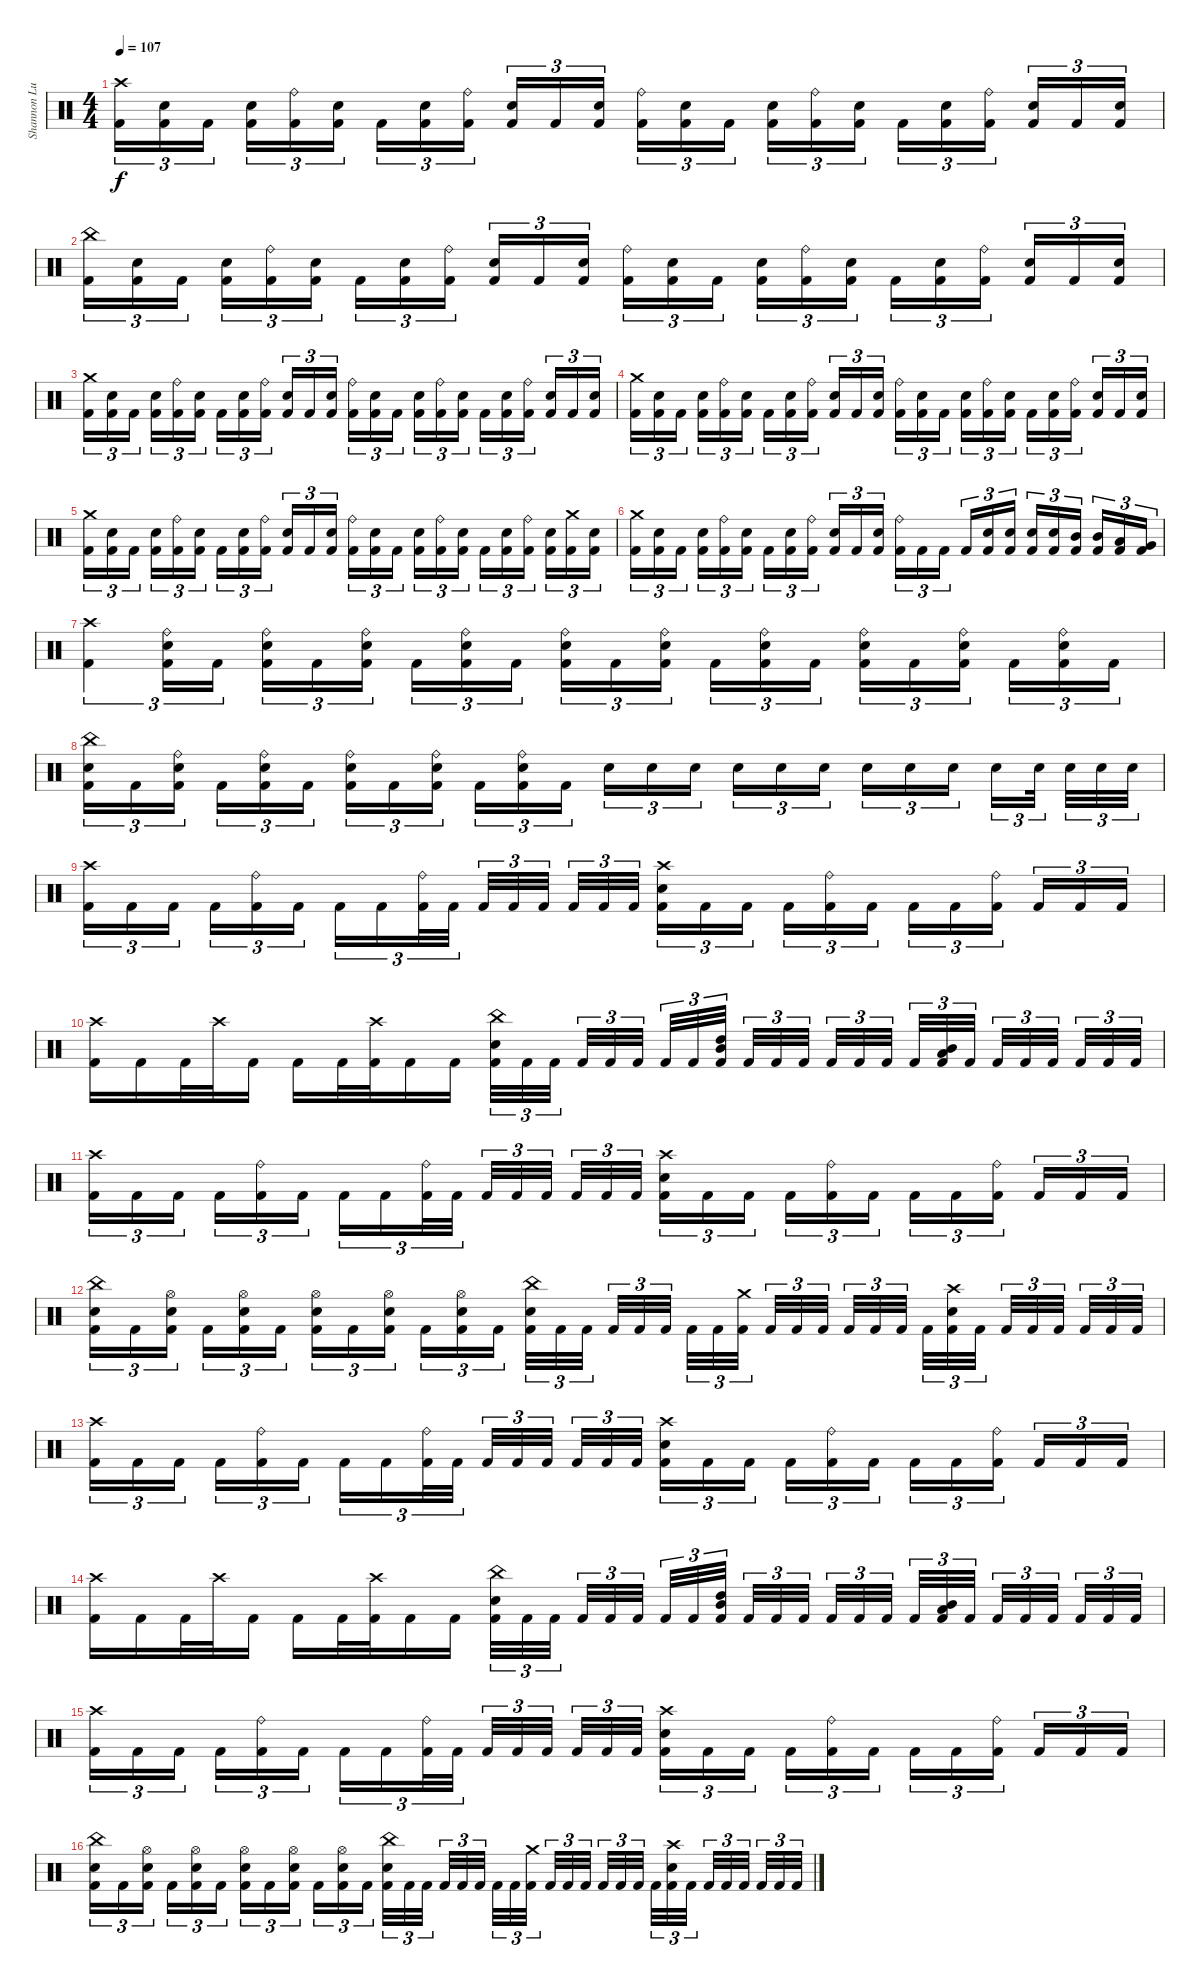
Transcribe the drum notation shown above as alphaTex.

\track ("Shannon Lucas (Drums)" "Shannon Lu") {instrument percussion}
\staff {score}
\articulation defaults
\ts (4 4)
\tempo 107
\clef neutral
\ks c
("Crash high (hit)" "Kick (hit) 2").16{tu (3 2) dy f} ("Snare (hit) 2" "Kick (hit) 2").16{tu (3 2)} "Kick (hit) 2".16{tu (3 2)} ("Snare (hit) 2" "Kick (hit) 2").16{tu (3 2)} ("Ride (bell)" "Kick (hit) 2").16{tu (3 2)} ("Snare (hit) 2" "Kick (hit) 2").16{tu (3 2)} "Kick (hit) 2".16{tu (3 2)} ("Snare (hit) 2" "Kick (hit) 2").16{tu (3 2)} ("Ride (bell)" "Kick (hit) 2").16{tu (3 2)} ("Snare (hit) 2" "Kick (hit) 2").16{tu (3 2)} "Kick (hit) 2".16{tu (3 2)} ("Snare (hit) 2" "Kick (hit) 2").16{tu (3 2)} ("Ride (bell)" "Kick (hit) 2").16{tu (3 2)} ("Snare (hit) 2" "Kick (hit) 2").16{tu (3 2)} "Kick (hit) 2".16{tu (3 2)} ("Snare (hit) 2" "Kick (hit) 2").16{tu (3 2)} ("Ride (bell)" "Kick (hit) 2").16{tu (3 2)} ("Snare (hit) 2" "Kick (hit) 2").16{tu (3 2)} "Kick (hit) 2".16{tu (3 2)} ("Snare (hit) 2" "Kick (hit) 2").16{tu (3 2)} ("Ride (bell)" "Kick (hit) 2").16{tu (3 2)} ("Snare (hit) 2" "Kick (hit) 2").16{tu (3 2)} "Kick (hit) 2".16{tu (3 2)} ("Snare (hit) 2" "Kick (hit) 2").16{tu (3 2)} |
("China (hit)" "Kick (hit) 2").16{tu (3 2)} ("Snare (hit) 2" "Kick (hit) 2").16{tu (3 2)} "Kick (hit) 2".16{tu (3 2)} ("Snare (hit) 2" "Kick (hit) 2").16{tu (3 2)} ("Ride (bell)" "Kick (hit) 2").16{tu (3 2)} ("Snare (hit) 2" "Kick (hit) 2").16{tu (3 2)} "Kick (hit) 2".16{tu (3 2)} ("Snare (hit) 2" "Kick (hit) 2").16{tu (3 2)} ("Ride (bell)" "Kick (hit) 2").16{tu (3 2)} ("Snare (hit) 2" "Kick (hit) 2").16{tu (3 2)} "Kick (hit) 2".16{tu (3 2)} ("Snare (hit) 2" "Kick (hit) 2").16{tu (3 2)} ("Ride (bell)" "Kick (hit) 2").16{tu (3 2)} ("Snare (hit) 2" "Kick (hit) 2").16{tu (3 2)} "Kick (hit) 2".16{tu (3 2)} ("Snare (hit) 2" "Kick (hit) 2").16{tu (3 2)} ("Ride (bell)" "Kick (hit) 2").16{tu (3 2)} ("Snare (hit) 2" "Kick (hit) 2").16{tu (3 2)} "Kick (hit) 2".16{tu (3 2)} ("Snare (hit) 2" "Kick (hit) 2").16{tu (3 2)} ("Ride (bell)" "Kick (hit) 2").16{tu (3 2)} ("Snare (hit) 2" "Kick (hit) 2").16{tu (3 2)} "Kick (hit) 2".16{tu (3 2)} ("Snare (hit) 2" "Kick (hit) 2").16{tu (3 2)} |
("Crash medium (hit)" "Kick (hit) 2").16{tu (3 2)} ("Snare (hit) 2" "Kick (hit) 2").16{tu (3 2)} "Kick (hit) 2".16{tu (3 2)} ("Snare (hit) 2" "Kick (hit) 2").16{tu (3 2)} ("Ride (bell)" "Kick (hit) 2").16{tu (3 2)} ("Snare (hit) 2" "Kick (hit) 2").16{tu (3 2)} "Kick (hit) 2".16{tu (3 2)} ("Snare (hit) 2" "Kick (hit) 2").16{tu (3 2)} ("Ride (bell)" "Kick (hit) 2").16{tu (3 2)} ("Snare (hit) 2" "Kick (hit) 2").16{tu (3 2)} "Kick (hit) 2".16{tu (3 2)} ("Snare (hit) 2" "Kick (hit) 2").16{tu (3 2)} ("Ride (bell)" "Kick (hit) 2").16{tu (3 2)} ("Snare (hit) 2" "Kick (hit) 2").16{tu (3 2)} "Kick (hit) 2".16{tu (3 2)} ("Snare (hit) 2" "Kick (hit) 2").16{tu (3 2)} ("Ride (bell)" "Kick (hit) 2").16{tu (3 2)} ("Snare (hit) 2" "Kick (hit) 2").16{tu (3 2)} "Kick (hit) 2".16{tu (3 2)} ("Snare (hit) 2" "Kick (hit) 2").16{tu (3 2)} ("Ride (bell)" "Kick (hit) 2").16{tu (3 2)} ("Snare (hit) 2" "Kick (hit) 2").16{tu (3 2)} "Kick (hit) 2".16{tu (3 2)} ("Snare (hit) 2" "Kick (hit) 2").16{tu (3 2)} |
("Crash medium (hit)" "Kick (hit) 2").16{tu (3 2)} ("Snare (hit) 2" "Kick (hit) 2").16{tu (3 2)} "Kick (hit) 2".16{tu (3 2)} ("Snare (hit) 2" "Kick (hit) 2").16{tu (3 2)} ("Ride (bell)" "Kick (hit) 2").16{tu (3 2)} ("Snare (hit) 2" "Kick (hit) 2").16{tu (3 2)} "Kick (hit) 2".16{tu (3 2)} ("Snare (hit) 2" "Kick (hit) 2").16{tu (3 2)} ("Ride (bell)" "Kick (hit) 2").16{tu (3 2)} ("Snare (hit) 2" "Kick (hit) 2").16{tu (3 2)} "Kick (hit) 2".16{tu (3 2)} ("Snare (hit) 2" "Kick (hit) 2").16{tu (3 2)} ("Ride (bell)" "Kick (hit) 2").16{tu (3 2)} ("Snare (hit) 2" "Kick (hit) 2").16{tu (3 2)} "Kick (hit) 2".16{tu (3 2)} ("Snare (hit) 2" "Kick (hit) 2").16{tu (3 2)} ("Ride (bell)" "Kick (hit) 2").16{tu (3 2)} ("Snare (hit) 2" "Kick (hit) 2").16{tu (3 2)} "Kick (hit) 2".16{tu (3 2)} ("Snare (hit) 2" "Kick (hit) 2").16{tu (3 2)} ("Ride (bell)" "Kick (hit) 2").16{tu (3 2)} ("Snare (hit) 2" "Kick (hit) 2").16{tu (3 2)} "Kick (hit) 2".16{tu (3 2)} ("Snare (hit) 2" "Kick (hit) 2").16{tu (3 2)} |
("Crash medium (hit)" "Kick (hit) 2").16{tu (3 2)} ("Snare (hit) 2" "Kick (hit) 2").16{tu (3 2)} "Kick (hit) 2".16{tu (3 2)} ("Snare (hit) 2" "Kick (hit) 2").16{tu (3 2)} ("Ride (bell)" "Kick (hit) 2").16{tu (3 2)} ("Snare (hit) 2" "Kick (hit) 2").16{tu (3 2)} "Kick (hit) 2".16{tu (3 2)} ("Snare (hit) 2" "Kick (hit) 2").16{tu (3 2)} ("Ride (bell)" "Kick (hit) 2").16{tu (3 2)} ("Snare (hit) 2" "Kick (hit) 2").16{tu (3 2)} "Kick (hit) 2".16{tu (3 2)} ("Snare (hit) 2" "Kick (hit) 2").16{tu (3 2)} ("Ride (bell)" "Kick (hit) 2").16{tu (3 2)} ("Snare (hit) 2" "Kick (hit) 2").16{tu (3 2)} "Kick (hit) 2".16{tu (3 2)} ("Snare (hit) 2" "Kick (hit) 2").16{tu (3 2)} ("Ride (bell)" "Kick (hit) 2").16{tu (3 2)} ("Snare (hit) 2" "Kick (hit) 2").16{tu (3 2)} "Kick (hit) 2".16{tu (3 2)} ("Snare (hit) 2" "Kick (hit) 2").16{tu (3 2)} ("Ride (bell)" "Kick (hit) 2").16{tu (3 2)} ("Snare (hit) 2" "Kick (hit) 2").16{tu (3 2)} ("Crash medium (hit)" "Kick (hit) 2").16{tu (3 2)} ("Snare (hit) 2" "Kick (hit) 2").16{tu (3 2)} |
("Crash medium (hit)" "Kick (hit) 2").16{tu (3 2)} ("Snare (hit) 2" "Kick (hit) 2").16{tu (3 2)} "Kick (hit) 2".16{tu (3 2)} ("Snare (hit) 2" "Kick (hit) 2").16{tu (3 2)} ("Ride (bell)" "Kick (hit) 2").16{tu (3 2)} ("Snare (hit) 2" "Kick (hit) 2").16{tu (3 2)} "Kick (hit) 2".16{tu (3 2)} ("Snare (hit) 2" "Kick (hit) 2").16{tu (3 2)} ("Ride (bell)" "Kick (hit) 2").16{tu (3 2)} ("Snare (hit) 2" "Kick (hit) 2").16{tu (3 2)} "Kick (hit) 2".16{tu (3 2)} ("Snare (hit) 2" "Kick (hit) 2").16{tu (3 2)} ("Ride (bell)" "Kick (hit) 2").16{tu (3 2)} "Kick (hit) 2".16{tu (3 2)} "Kick (hit) 2".16{tu (3 2)} "Kick (hit) 2".16{tu (3 2)} ("Snare (hit) 2" "Kick (hit) 2").16{tu (3 2)} ("Snare (hit) 2" "Kick (hit) 2").16{tu (3 2)} ("Snare (hit) 2" "Kick (hit) 2").16{tu (3 2)} ("Snare (hit) 2" "Kick (hit) 2").16{tu (3 2)} ("Mid Tom (hit)" "Kick (hit) 2").16{tu (3 2)} ("Mid Tom (hit)" "Kick (hit) 2").16{tu (3 2)} ("Low Tom (hit)" "Kick (hit) 2").16{tu (3 2)} ("Very Low Tom (hit)" "Kick (hit) 2").16{tu (3 2)} |
("Crash high (hit)" "Kick (hit) 2").4{tu (3 2)} ("Ride (bell)" "Snare (hit) 2" "Kick (hit) 2").16{tu (3 2)} "Kick (hit) 2".16{tu (3 2)} ("Ride (bell)" "Snare (hit) 2" "Kick (hit) 2").16{tu (3 2)} "Kick (hit) 2".16{tu (3 2)} ("Ride (bell)" "Snare (hit) 2" "Kick (hit) 2").16{tu (3 2)} "Kick (hit) 2".16{tu (3 2)} ("Ride (bell)" "Snare (hit) 2" "Kick (hit) 2").16{tu (3 2)} "Kick (hit) 2".16{tu (3 2)} ("Ride (bell)" "Snare (hit) 2" "Kick (hit) 2").16{tu (3 2)} "Kick (hit) 2".16{tu (3 2)} ("Ride (bell)" "Snare (hit) 2" "Kick (hit) 2").16{tu (3 2)} "Kick (hit) 2".16{tu (3 2)} ("Ride (bell)" "Snare (hit) 2" "Kick (hit) 2").16{tu (3 2)} "Kick (hit) 2".16{tu (3 2)} ("Ride (bell)" "Snare (hit) 2" "Kick (hit) 2").16{tu (3 2)} "Kick (hit) 2".16{tu (3 2)} ("Ride (bell)" "Snare (hit) 2" "Kick (hit) 2").16{tu (3 2)} "Kick (hit) 2".16{tu (3 2)} ("Ride (bell)" "Snare (hit) 2" "Kick (hit) 2").16{tu (3 2)} "Kick (hit) 2".16{tu (3 2)} |
("China (hit)" "Snare (hit) 2" "Kick (hit) 2").16{tu (3 2)} "Kick (hit) 2".16{tu (3 2)} ("Ride (bell)" "Snare (hit) 2" "Kick (hit) 2").16{tu (3 2)} "Kick (hit) 2".16{tu (3 2)} ("Ride (bell)" "Snare (hit) 2" "Kick (hit) 2").16{tu (3 2)} "Kick (hit) 2".16{tu (3 2)} ("Ride (bell)" "Snare (hit) 2" "Kick (hit) 2").16{tu (3 2)} "Kick (hit) 2".16{tu (3 2)} ("Ride (bell)" "Snare (hit) 2" "Kick (hit) 2").16{tu (3 2)} "Kick (hit) 2".16{tu (3 2)} ("Ride (bell)" "Snare (hit) 2" "Kick (hit) 2").16{tu (3 2)} "Kick (hit) 2".16{tu (3 2)} "Snare (hit) 2".16{tu (3 2)} "Snare (hit) 2".16{tu (3 2)} "Snare (hit) 2".16{tu (3 2)} "Snare (hit) 2".16{tu (3 2)} "Snare (hit) 2".16{tu (3 2)} "Snare (hit) 2".16{tu (3 2)} "Snare (hit) 2".16{tu (3 2)} "Snare (hit) 2".16{tu (3 2)} "Snare (hit) 2".16{tu (3 2)} "Snare (hit) 2".16{tu (3 2)} "Snare (hit) 2".32{tu (3 2)} "Snare (hit) 2".32{tu (3 2)} "Snare (hit) 2".32{tu (3 2)} "Snare (hit) 2".32{tu (3 2)} |
("Crash high (hit)" "Kick (hit) 2").16{tu (3 2)} "Kick (hit) 2".16{tu (3 2)} "Kick (hit) 2".16{tu (3 2)} "Kick (hit) 2".16{tu (3 2)} ("Ride (bell)" "Kick (hit) 2").16{tu (3 2)} "Kick (hit) 2".16{tu (3 2)} "Kick (hit) 2".16{tu (3 2)} "Kick (hit) 2".16{tu (3 2)} ("Ride (bell)" "Kick (hit) 2").32{tu (3 2)} "Kick (hit) 2".32{tu (3 2)} "Kick (hit) 2".32{tu (3 2)} "Kick (hit) 2".32{tu (3 2)} "Kick (hit) 2".32{tu (3 2)} "Kick (hit) 2".32{tu (3 2)} "Kick (hit) 2".32{tu (3 2)} "Kick (hit) 2".32{tu (3 2)} ("Crash high (hit)" "Snare (hit) 2" "Kick (hit) 2").16{tu (3 2)} "Kick (hit) 2".16{tu (3 2)} "Kick (hit) 2".16{tu (3 2)} "Kick (hit) 2".16{tu (3 2)} ("Ride (bell)" "Kick (hit) 2").16{tu (3 2)} "Kick (hit) 2".16{tu (3 2)} "Kick (hit) 2".16{tu (3 2)} "Kick (hit) 2".16{tu (3 2)} ("Ride (bell)" "Kick (hit) 2").16{tu (3 2)} "Kick (hit) 2".16{tu (3 2)} "Kick (hit) 2".16{tu (3 2)} "Kick (hit) 2".16{tu (3 2)} |
("Crash high (hit)" "Kick (hit) 2").16 "Kick (hit) 2".16 "Kick (hit) 2".32 "Crash high (hit)".32 "Kick (hit) 2".16 "Kick (hit) 2".16 "Kick (hit) 2".32 ("Crash high (hit)" "Kick (hit) 2").32 "Kick (hit) 2".16 "Kick (hit) 2".16 ("China (hit)" "Snare (hit) 2" "Kick (hit) 2").32{tu (3 2)} "Kick (hit) 2".32{tu (3 2)} "Kick (hit) 2".32{tu (3 2)} "Kick (hit) 2".32{tu (3 2)} "Kick (hit) 2".32{tu (3 2)} "Kick (hit) 2".32{tu (3 2)} "Kick (hit) 2".32{tu (3 2)} "Kick (hit) 2".32{tu (3 2)} ("Mid Tom (hit)" "High Tom (hit)" "Kick (hit) 2").32{tu (3 2)} "Kick (hit) 2".32{tu (3 2)} "Kick (hit) 2".32{tu (3 2)} "Kick (hit) 2".32{tu (3 2)} "Kick (hit) 2".32{tu (3 2)} "Kick (hit) 2".32{tu (3 2)} "Kick (hit) 2".32{tu (3 2)} "Kick (hit) 2".32{tu (3 2)} ("Low Tom (hit)" "Mid Tom (hit)" "Kick (hit) 2").32{tu (3 2)} "Kick (hit) 2".32{tu (3 2)} "Kick (hit) 2".32{tu (3 2)} "Kick (hit) 2".32{tu (3 2)} "Kick (hit) 2".32{tu (3 2)} "Kick (hit) 2".32{tu (3 2)} "Kick (hit) 2".32{tu (3 2)} "Kick (hit) 2".32{tu (3 2)} |
("Crash high (hit)" "Kick (hit) 2").16{tu (3 2)} "Kick (hit) 2".16{tu (3 2)} "Kick (hit) 2".16{tu (3 2)} "Kick (hit) 2".16{tu (3 2)} ("Ride (bell)" "Kick (hit) 2").16{tu (3 2)} "Kick (hit) 2".16{tu (3 2)} "Kick (hit) 2".16{tu (3 2)} "Kick (hit) 2".16{tu (3 2)} ("Ride (bell)" "Kick (hit) 2").32{tu (3 2)} "Kick (hit) 2".32{tu (3 2)} "Kick (hit) 2".32{tu (3 2)} "Kick (hit) 2".32{tu (3 2)} "Kick (hit) 2".32{tu (3 2)} "Kick (hit) 2".32{tu (3 2)} "Kick (hit) 2".32{tu (3 2)} "Kick (hit) 2".32{tu (3 2)} ("Crash high (hit)" "Snare (hit) 2" "Kick (hit) 2").16{tu (3 2)} "Kick (hit) 2".16{tu (3 2)} "Kick (hit) 2".16{tu (3 2)} "Kick (hit) 2".16{tu (3 2)} ("Ride (bell)" "Kick (hit) 2").16{tu (3 2)} "Kick (hit) 2".16{tu (3 2)} "Kick (hit) 2".16{tu (3 2)} "Kick (hit) 2".16{tu (3 2)} ("Ride (bell)" "Kick (hit) 2").16{tu (3 2)} "Kick (hit) 2".16{tu (3 2)} "Kick (hit) 2".16{tu (3 2)} "Kick (hit) 2".16{tu (3 2)} |
("China (hit)" "Snare (hit) 2" "Kick (hit) 2").16{tu (3 2)} "Kick (hit) 2".16{tu (3 2)} ("Hi-Hat (open)" "Snare (hit) 2" "Kick (hit) 2").16{tu (3 2)} "Kick (hit) 2".16{tu (3 2)} ("Hi-Hat (open)" "Snare (hit) 2" "Kick (hit) 2").16{tu (3 2)} "Kick (hit) 2".16{tu (3 2)} ("Hi-Hat (open)" "Snare (hit) 2" "Kick (hit) 2").16{tu (3 2)} "Kick (hit) 2".16{tu (3 2)} ("Hi-Hat (open)" "Snare (hit) 2" "Kick (hit) 2").16{tu (3 2)} "Kick (hit) 2".16{tu (3 2)} ("Hi-Hat (open)" "Snare (hit) 2" "Kick (hit) 2").16{tu (3 2)} "Kick (hit) 2".16{tu (3 2)} ("China (hit)" "Snare (hit) 2" "Kick (hit) 2").32{tu (3 2)} "Kick (hit) 2".32{tu (3 2)} "Kick (hit) 2".32{tu (3 2)} "Kick (hit) 2".32{tu (3 2)} "Kick (hit) 2".32{tu (3 2)} "Kick (hit) 2".32{tu (3 2)} "Kick (hit) 2".32{tu (3 2)} "Kick (hit) 2".32{tu (3 2)} ("Crash medium (hit)" "Kick (hit) 2").32{tu (3 2)} "Kick (hit) 2".32{tu (3 2)} "Kick (hit) 2".32{tu (3 2)} "Kick (hit) 2".32{tu (3 2)} "Kick (hit) 2".32{tu (3 2)} "Kick (hit) 2".32{tu (3 2)} "Kick (hit) 2".32{tu (3 2)} "Kick (hit) 2".32{tu (3 2)} ("Snare (hit) 2" "Crash high (hit)" "Kick (hit) 2").32{tu (3 2)} "Kick (hit) 2".32{tu (3 2)} "Kick (hit) 2".32{tu (3 2)} "Kick (hit) 2".32{tu (3 2)} "Kick (hit) 2".32{tu (3 2)} "Kick (hit) 2".32{tu (3 2)} "Kick (hit) 2".32{tu (3 2)} "Kick (hit) 2".32{tu (3 2)} |
("Crash high (hit)" "Kick (hit) 2").16{tu (3 2)} "Kick (hit) 2".16{tu (3 2)} "Kick (hit) 2".16{tu (3 2)} "Kick (hit) 2".16{tu (3 2)} ("Ride (bell)" "Kick (hit) 2").16{tu (3 2)} "Kick (hit) 2".16{tu (3 2)} "Kick (hit) 2".16{tu (3 2)} "Kick (hit) 2".16{tu (3 2)} ("Ride (bell)" "Kick (hit) 2").32{tu (3 2)} "Kick (hit) 2".32{tu (3 2)} "Kick (hit) 2".32{tu (3 2)} "Kick (hit) 2".32{tu (3 2)} "Kick (hit) 2".32{tu (3 2)} "Kick (hit) 2".32{tu (3 2)} "Kick (hit) 2".32{tu (3 2)} "Kick (hit) 2".32{tu (3 2)} ("Crash high (hit)" "Snare (hit) 2" "Kick (hit) 2").16{tu (3 2)} "Kick (hit) 2".16{tu (3 2)} "Kick (hit) 2".16{tu (3 2)} "Kick (hit) 2".16{tu (3 2)} ("Ride (bell)" "Kick (hit) 2").16{tu (3 2)} "Kick (hit) 2".16{tu (3 2)} "Kick (hit) 2".16{tu (3 2)} "Kick (hit) 2".16{tu (3 2)} ("Ride (bell)" "Kick (hit) 2").16{tu (3 2)} "Kick (hit) 2".16{tu (3 2)} "Kick (hit) 2".16{tu (3 2)} "Kick (hit) 2".16{tu (3 2)} |
("Crash high (hit)" "Kick (hit) 2").16 "Kick (hit) 2".16 "Kick (hit) 2".32 "Crash high (hit)".32 "Kick (hit) 2".16 "Kick (hit) 2".16 "Kick (hit) 2".32 ("Crash high (hit)" "Kick (hit) 2").32 "Kick (hit) 2".16 "Kick (hit) 2".16 ("China (hit)" "Snare (hit) 2" "Kick (hit) 2").32{tu (3 2)} "Kick (hit) 2".32{tu (3 2)} "Kick (hit) 2".32{tu (3 2)} "Kick (hit) 2".32{tu (3 2)} "Kick (hit) 2".32{tu (3 2)} "Kick (hit) 2".32{tu (3 2)} "Kick (hit) 2".32{tu (3 2)} "Kick (hit) 2".32{tu (3 2)} ("Mid Tom (hit)" "High Tom (hit)" "Kick (hit) 2").32{tu (3 2)} "Kick (hit) 2".32{tu (3 2)} "Kick (hit) 2".32{tu (3 2)} "Kick (hit) 2".32{tu (3 2)} "Kick (hit) 2".32{tu (3 2)} "Kick (hit) 2".32{tu (3 2)} "Kick (hit) 2".32{tu (3 2)} "Kick (hit) 2".32{tu (3 2)} ("Low Tom (hit)" "Mid Tom (hit)" "Kick (hit) 2").32{tu (3 2)} "Kick (hit) 2".32{tu (3 2)} "Kick (hit) 2".32{tu (3 2)} "Kick (hit) 2".32{tu (3 2)} "Kick (hit) 2".32{tu (3 2)} "Kick (hit) 2".32{tu (3 2)} "Kick (hit) 2".32{tu (3 2)} "Kick (hit) 2".32{tu (3 2)} |
("Crash high (hit)" "Kick (hit) 2").16{tu (3 2)} "Kick (hit) 2".16{tu (3 2)} "Kick (hit) 2".16{tu (3 2)} "Kick (hit) 2".16{tu (3 2)} ("Ride (bell)" "Kick (hit) 2").16{tu (3 2)} "Kick (hit) 2".16{tu (3 2)} "Kick (hit) 2".16{tu (3 2)} "Kick (hit) 2".16{tu (3 2)} ("Ride (bell)" "Kick (hit) 2").32{tu (3 2)} "Kick (hit) 2".32{tu (3 2)} "Kick (hit) 2".32{tu (3 2)} "Kick (hit) 2".32{tu (3 2)} "Kick (hit) 2".32{tu (3 2)} "Kick (hit) 2".32{tu (3 2)} "Kick (hit) 2".32{tu (3 2)} "Kick (hit) 2".32{tu (3 2)} ("Crash high (hit)" "Snare (hit) 2" "Kick (hit) 2").16{tu (3 2)} "Kick (hit) 2".16{tu (3 2)} "Kick (hit) 2".16{tu (3 2)} "Kick (hit) 2".16{tu (3 2)} ("Ride (bell)" "Kick (hit) 2").16{tu (3 2)} "Kick (hit) 2".16{tu (3 2)} "Kick (hit) 2".16{tu (3 2)} "Kick (hit) 2".16{tu (3 2)} ("Ride (bell)" "Kick (hit) 2").16{tu (3 2)} "Kick (hit) 2".16{tu (3 2)} "Kick (hit) 2".16{tu (3 2)} "Kick (hit) 2".16{tu (3 2)} |
("China (hit)" "Snare (hit) 2" "Kick (hit) 2").16{tu (3 2)} "Kick (hit) 2".16{tu (3 2)} ("Hi-Hat (open)" "Snare (hit) 2" "Kick (hit) 2").16{tu (3 2)} "Kick (hit) 2".16{tu (3 2)} ("Hi-Hat (open)" "Snare (hit) 2" "Kick (hit) 2").16{tu (3 2)} "Kick (hit) 2".16{tu (3 2)} ("Hi-Hat (open)" "Snare (hit) 2" "Kick (hit) 2").16{tu (3 2)} "Kick (hit) 2".16{tu (3 2)} ("Hi-Hat (open)" "Snare (hit) 2" "Kick (hit) 2").16{tu (3 2)} "Kick (hit) 2".16{tu (3 2)} ("Hi-Hat (open)" "Snare (hit) 2" "Kick (hit) 2").16{tu (3 2)} "Kick (hit) 2".16{tu (3 2)} ("China (hit)" "Snare (hit) 2" "Kick (hit) 2").32{tu (3 2)} "Kick (hit) 2".32{tu (3 2)} "Kick (hit) 2".32{tu (3 2)} "Kick (hit) 2".32{tu (3 2)} "Kick (hit) 2".32{tu (3 2)} "Kick (hit) 2".32{tu (3 2)} "Kick (hit) 2".32{tu (3 2)} "Kick (hit) 2".32{tu (3 2)} ("Crash medium (hit)" "Kick (hit) 2").32{tu (3 2)} "Kick (hit) 2".32{tu (3 2)} "Kick (hit) 2".32{tu (3 2)} "Kick (hit) 2".32{tu (3 2)} "Kick (hit) 2".32{tu (3 2)} "Kick (hit) 2".32{tu (3 2)} "Kick (hit) 2".32{tu (3 2)} "Kick (hit) 2".32{tu (3 2)} ("Snare (hit) 2" "Crash high (hit)" "Kick (hit) 2").32{tu (3 2)} "Kick (hit) 2".32{tu (3 2)} "Kick (hit) 2".32{tu (3 2)} "Kick (hit) 2".32{tu (3 2)} "Kick (hit) 2".32{tu (3 2)} "Kick (hit) 2".32{tu (3 2)} "Kick (hit) 2".32{tu (3 2)} "Kick (hit) 2".32{tu (3 2)}
